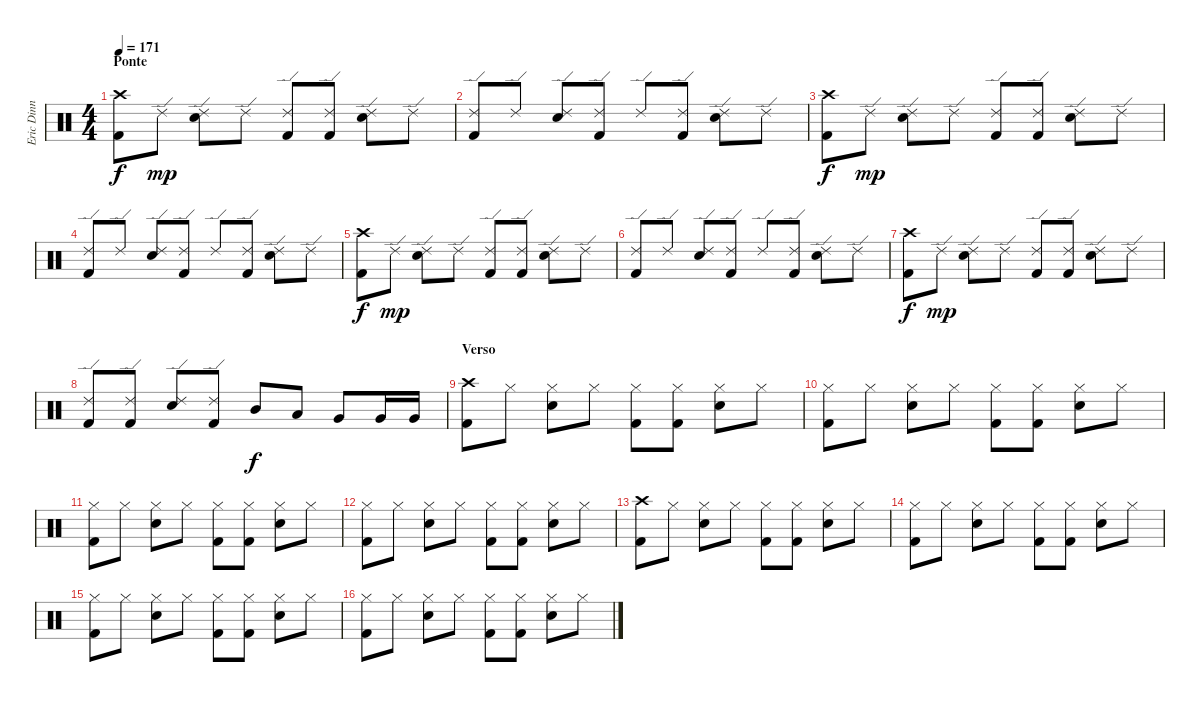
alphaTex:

\track ("Eric Dinn" "Eric Dinn") {instrument percussion}
\staff {score}
\articulation defaults
\ts (4 4)
\section ("" "Ponte")
\tempo 171
\clef neutral
\ks c
("Crash high (hit)" "Kick (hit) 2").8{dy f} "Ride (edge) 2".8{dy mp} ("Ride (edge) 2" "Snare (hit) 2").8 "Ride (edge) 2".8 ("Ride (edge) 2" "Kick (hit) 2").8 ("Ride (edge) 2" "Kick (hit) 2").8 ("Ride (edge) 2" "Snare (hit) 2").8 "Ride (edge) 2".8 |
("Ride (edge) 2" "Kick (hit) 2").8 "Ride (edge) 2".8 ("Ride (edge) 2" "Snare (hit) 2").8 ("Ride (edge) 2" "Kick (hit) 2").8 "Ride (edge) 2".8 ("Ride (edge) 2" "Kick (hit) 2").8 ("Ride (edge) 2" "Snare (hit) 2").8 "Ride (edge) 2".8 |
("Crash high (hit)" "Kick (hit) 2").8{dy f} "Ride (edge) 2".8{dy mp} ("Ride (edge) 2" "Snare (hit) 2").8 "Ride (edge) 2".8 ("Ride (edge) 2" "Kick (hit) 2").8 ("Ride (edge) 2" "Kick (hit) 2").8 ("Ride (edge) 2" "Snare (hit) 2").8 "Ride (edge) 2".8 |
("Ride (edge) 2" "Kick (hit) 2").8 "Ride (edge) 2".8 ("Ride (edge) 2" "Snare (hit) 2").8 ("Ride (edge) 2" "Kick (hit) 2").8 "Ride (edge) 2".8 ("Ride (edge) 2" "Kick (hit) 2").8 ("Ride (edge) 2" "Snare (hit) 2").8 "Ride (edge) 2".8 |
("Crash high (hit)" "Kick (hit) 2").8{dy f} "Ride (edge) 2".8{dy mp} ("Ride (edge) 2" "Snare (hit) 2").8 "Ride (edge) 2".8 ("Ride (edge) 2" "Kick (hit) 2").8 ("Ride (edge) 2" "Kick (hit) 2").8 ("Ride (edge) 2" "Snare (hit) 2").8 "Ride (edge) 2".8 |
("Ride (edge) 2" "Kick (hit) 2").8 "Ride (edge) 2".8 ("Ride (edge) 2" "Snare (hit) 2").8 ("Ride (edge) 2" "Kick (hit) 2").8 "Ride (edge) 2".8 ("Ride (edge) 2" "Kick (hit) 2").8 ("Ride (edge) 2" "Snare (hit) 2").8 "Ride (edge) 2".8 |
("Crash high (hit)" "Kick (hit) 2").8{dy f} "Ride (edge) 2".8{dy mp} ("Ride (edge) 2" "Snare (hit) 2").8 "Ride (edge) 2".8 ("Ride (edge) 2" "Kick (hit) 2").8 ("Ride (edge) 2" "Kick (hit) 2").8 ("Ride (edge) 2" "Snare (hit) 2").8 "Ride (edge) 2".8 |
("Ride (edge) 2" "Kick (hit) 2").8 ("Ride (edge) 2" "Kick (hit) 2").8 ("Ride (edge) 2" "Snare (hit) 2").8 ("Ride (edge) 2" "Kick (hit) 2").8 "Mid Tom (hit)".8{dy f} "Low Tom (hit)".8 "Very Low Tom (hit)".8 "Very Low Tom (hit)".16 "Very Low Tom (hit)".16 |
\section ("" "Verso")
("Crash high (hit)" "Kick (hit) 2").8 "Hi-Hat (closed)".8 ("Hi-Hat (closed)" "Snare (hit) 2").8 "Hi-Hat (closed)".8 ("Hi-Hat (closed)" "Kick (hit) 2").8 ("Hi-Hat (closed)" "Kick (hit) 2").8 ("Hi-Hat (closed)" "Snare (hit) 2").8 "Hi-Hat (closed)".8 |
("Hi-Hat (closed)" "Kick (hit) 2").8 "Hi-Hat (closed)".8 ("Hi-Hat (closed)" "Snare (hit) 2").8 "Hi-Hat (closed)".8 ("Hi-Hat (closed)" "Kick (hit) 2").8 ("Hi-Hat (closed)" "Kick (hit) 2").8 ("Hi-Hat (closed)" "Snare (hit) 2").8 "Hi-Hat (closed)".8 |
("Hi-Hat (closed)" "Kick (hit) 2").8 "Hi-Hat (closed)".8 ("Hi-Hat (closed)" "Snare (hit) 2").8 "Hi-Hat (closed)".8 ("Hi-Hat (closed)" "Kick (hit) 2").8 ("Hi-Hat (closed)" "Kick (hit) 2").8 ("Hi-Hat (closed)" "Snare (hit) 2").8 "Hi-Hat (closed)".8 |
("Hi-Hat (closed)" "Kick (hit) 2").8 "Hi-Hat (closed)".8 ("Hi-Hat (closed)" "Snare (hit) 2").8 "Hi-Hat (closed)".8 ("Hi-Hat (closed)" "Kick (hit) 2").8 ("Hi-Hat (closed)" "Kick (hit) 2").8 ("Hi-Hat (closed)" "Snare (hit) 2").8 "Hi-Hat (closed)".8 |
("Crash high (hit)" "Kick (hit) 2").8 "Hi-Hat (closed)".8 ("Hi-Hat (closed)" "Snare (hit) 2").8 "Hi-Hat (closed)".8 ("Hi-Hat (closed)" "Kick (hit) 2").8 ("Hi-Hat (closed)" "Kick (hit) 2").8 ("Hi-Hat (closed)" "Snare (hit) 2").8 "Hi-Hat (closed)".8 |
("Hi-Hat (closed)" "Kick (hit) 2").8 "Hi-Hat (closed)".8 ("Hi-Hat (closed)" "Snare (hit) 2").8 "Hi-Hat (closed)".8 ("Hi-Hat (closed)" "Kick (hit) 2").8 ("Hi-Hat (closed)" "Kick (hit) 2").8 ("Hi-Hat (closed)" "Snare (hit) 2").8 "Hi-Hat (closed)".8 |
("Hi-Hat (closed)" "Kick (hit) 2").8 "Hi-Hat (closed)".8 ("Hi-Hat (closed)" "Snare (hit) 2").8 "Hi-Hat (closed)".8 ("Hi-Hat (closed)" "Kick (hit) 2").8 ("Hi-Hat (closed)" "Kick (hit) 2").8 ("Hi-Hat (closed)" "Snare (hit) 2").8 "Hi-Hat (closed)".8 |
("Hi-Hat (closed)" "Kick (hit) 2").8 "Hi-Hat (closed)".8 ("Hi-Hat (closed)" "Snare (hit) 2").8 "Hi-Hat (closed)".8 ("Hi-Hat (closed)" "Kick (hit) 2").8 ("Hi-Hat (closed)" "Kick (hit) 2").8 ("Hi-Hat (closed)" "Snare (hit) 2").8 "Hi-Hat (closed)".8
